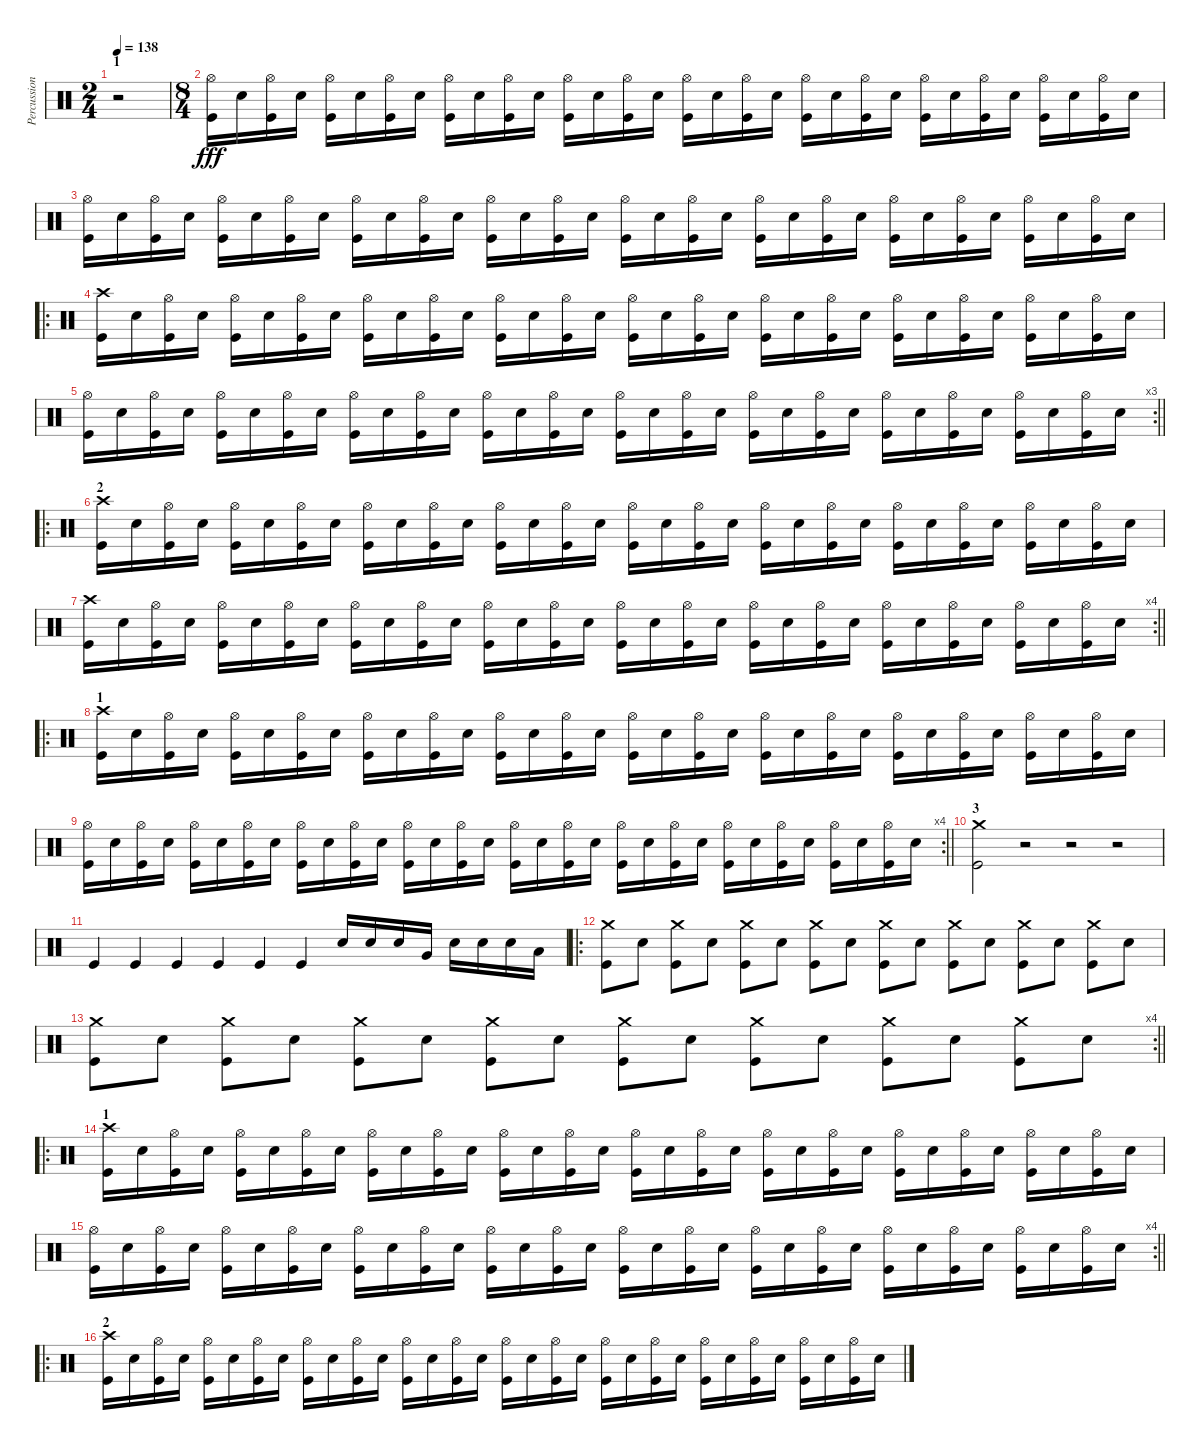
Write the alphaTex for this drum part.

\track ("Percussion" "Percussion") {instrument percussion}
\staff {score}
\articulation defaults
\ts (2 4)
\section ("" "1")
\tempo 138
\clef neutral
\ks c
r.2{dy fff} |
\ts (8 4)
("Hi-Hat (open)" "Kick (hit)").16 "Snare (hit) 2".16 ("Hi-Hat (open)" "Kick (hit)").16 "Snare (hit) 2".16 ("Hi-Hat (open)" "Kick (hit)").16 "Snare (hit) 2".16 ("Hi-Hat (open)" "Kick (hit)").16 "Snare (hit) 2".16 ("Hi-Hat (open)" "Kick (hit)").16 "Snare (hit) 2".16 ("Hi-Hat (open)" "Kick (hit)").16 "Snare (hit) 2".16 ("Hi-Hat (open)" "Kick (hit)").16 "Snare (hit) 2".16 ("Hi-Hat (open)" "Kick (hit)").16 "Snare (hit) 2".16 ("Hi-Hat (open)" "Kick (hit)").16 "Snare (hit) 2".16 ("Hi-Hat (open)" "Kick (hit)").16 "Snare (hit) 2".16 ("Hi-Hat (open)" "Kick (hit)").16 "Snare (hit) 2".16 ("Hi-Hat (open)" "Kick (hit)").16 "Snare (hit) 2".16 ("Hi-Hat (open)" "Kick (hit)").16 "Snare (hit) 2".16 ("Hi-Hat (open)" "Kick (hit)").16 "Snare (hit) 2".16 ("Hi-Hat (open)" "Kick (hit)").16 "Snare (hit) 2".16 ("Hi-Hat (open)" "Kick (hit)").16 "Snare (hit) 2".16 |
("Hi-Hat (open)" "Kick (hit)").16 "Snare (hit) 2".16 ("Hi-Hat (open)" "Kick (hit)").16 "Snare (hit) 2".16 ("Hi-Hat (open)" "Kick (hit)").16 "Snare (hit) 2".16 ("Hi-Hat (open)" "Kick (hit)").16 "Snare (hit) 2".16 ("Hi-Hat (open)" "Kick (hit)").16 "Snare (hit) 2".16 ("Hi-Hat (open)" "Kick (hit)").16 "Snare (hit) 2".16 ("Hi-Hat (open)" "Kick (hit)").16 "Snare (hit) 2".16 ("Hi-Hat (open)" "Kick (hit)").16 "Snare (hit) 2".16 ("Hi-Hat (open)" "Kick (hit)").16 "Snare (hit) 2".16 ("Hi-Hat (open)" "Kick (hit)").16 "Snare (hit) 2".16 ("Hi-Hat (open)" "Kick (hit)").16 "Snare (hit) 2".16 ("Hi-Hat (open)" "Kick (hit)").16 "Snare (hit) 2".16 ("Hi-Hat (open)" "Kick (hit)").16 "Snare (hit) 2".16 ("Hi-Hat (open)" "Kick (hit)").16 "Snare (hit) 2".16 ("Hi-Hat (open)" "Kick (hit)").16 "Snare (hit) 2".16 ("Hi-Hat (open)" "Kick (hit)").16 "Snare (hit) 2".16 |
\ro
("Crash high (hit)" "Kick (hit)").16 "Snare (hit) 2".16 ("Hi-Hat (open)" "Kick (hit)").16 "Snare (hit) 2".16 ("Hi-Hat (open)" "Kick (hit)").16 "Snare (hit) 2".16 ("Hi-Hat (open)" "Kick (hit)").16 "Snare (hit) 2".16 ("Hi-Hat (open)" "Kick (hit)").16 "Snare (hit) 2".16 ("Hi-Hat (open)" "Kick (hit)").16 "Snare (hit) 2".16 ("Hi-Hat (open)" "Kick (hit)").16 "Snare (hit) 2".16 ("Hi-Hat (open)" "Kick (hit)").16 "Snare (hit) 2".16 ("Hi-Hat (open)" "Kick (hit)").16 "Snare (hit) 2".16 ("Hi-Hat (open)" "Kick (hit)").16 "Snare (hit) 2".16 ("Hi-Hat (open)" "Kick (hit)").16 "Snare (hit) 2".16 ("Hi-Hat (open)" "Kick (hit)").16 "Snare (hit) 2".16 ("Hi-Hat (open)" "Kick (hit)").16 "Snare (hit) 2".16 ("Hi-Hat (open)" "Kick (hit)").16 "Snare (hit) 2".16 ("Hi-Hat (open)" "Kick (hit)").16 "Snare (hit) 2".16 ("Hi-Hat (open)" "Kick (hit)").16 "Snare (hit) 2".16 |
\rc 3
\barLineRight lightlight
("Hi-Hat (open)" "Kick (hit)").16 "Snare (hit) 2".16 ("Hi-Hat (open)" "Kick (hit)").16 "Snare (hit) 2".16 ("Hi-Hat (open)" "Kick (hit)").16 "Snare (hit) 2".16 ("Hi-Hat (open)" "Kick (hit)").16 "Snare (hit) 2".16 ("Hi-Hat (open)" "Kick (hit)").16 "Snare (hit) 2".16 ("Hi-Hat (open)" "Kick (hit)").16 "Snare (hit) 2".16 ("Hi-Hat (open)" "Kick (hit)").16 "Snare (hit) 2".16 ("Hi-Hat (open)" "Kick (hit)").16 "Snare (hit) 2".16 ("Hi-Hat (open)" "Kick (hit)").16 "Snare (hit) 2".16 ("Hi-Hat (open)" "Kick (hit)").16 "Snare (hit) 2".16 ("Hi-Hat (open)" "Kick (hit)").16 "Snare (hit) 2".16 ("Hi-Hat (open)" "Kick (hit)").16 "Snare (hit) 2".16 ("Hi-Hat (open)" "Kick (hit)").16 "Snare (hit) 2".16 ("Hi-Hat (open)" "Kick (hit)").16 "Snare (hit) 2".16 ("Hi-Hat (open)" "Kick (hit)").16 "Snare (hit) 2".16 ("Hi-Hat (open)" "Kick (hit)").16 "Snare (hit) 2".16 |
\ro
\section ("" "2")
("Crash high (hit)" "Kick (hit)").16 "Snare (hit) 2".16 ("Hi-Hat (open)" "Kick (hit)").16 "Snare (hit) 2".16 ("Hi-Hat (open)" "Kick (hit)").16 "Snare (hit) 2".16 ("Hi-Hat (open)" "Kick (hit)").16 "Snare (hit) 2".16 ("Hi-Hat (open)" "Kick (hit)").16 "Snare (hit) 2".16 ("Hi-Hat (open)" "Kick (hit)").16 "Snare (hit) 2".16 ("Hi-Hat (open)" "Kick (hit)").16 "Snare (hit) 2".16 ("Hi-Hat (open)" "Kick (hit)").16 "Snare (hit) 2".16 ("Hi-Hat (open)" "Kick (hit)").16 "Snare (hit) 2".16 ("Hi-Hat (open)" "Kick (hit)").16 "Snare (hit) 2".16 ("Hi-Hat (open)" "Kick (hit)").16 "Snare (hit) 2".16 ("Hi-Hat (open)" "Kick (hit)").16 "Snare (hit) 2".16 ("Hi-Hat (open)" "Kick (hit)").16 "Snare (hit) 2".16 ("Hi-Hat (open)" "Kick (hit)").16 "Snare (hit) 2".16 ("Hi-Hat (open)" "Kick (hit)").16 "Snare (hit) 2".16 ("Hi-Hat (open)" "Kick (hit)").16 "Snare (hit) 2".16 |
\rc 4
\barLineRight lightlight
("Crash high (hit)" "Kick (hit)").16 "Snare (hit) 2".16 ("Hi-Hat (open)" "Kick (hit)").16 "Snare (hit) 2".16 ("Hi-Hat (open)" "Kick (hit)").16 "Snare (hit) 2".16 ("Hi-Hat (open)" "Kick (hit)").16 "Snare (hit) 2".16 ("Hi-Hat (open)" "Kick (hit)").16 "Snare (hit) 2".16 ("Hi-Hat (open)" "Kick (hit)").16 "Snare (hit) 2".16 ("Hi-Hat (open)" "Kick (hit)").16 "Snare (hit) 2".16 ("Hi-Hat (open)" "Kick (hit)").16 "Snare (hit) 2".16 ("Hi-Hat (open)" "Kick (hit)").16 "Snare (hit) 2".16 ("Hi-Hat (open)" "Kick (hit)").16 "Snare (hit) 2".16 ("Hi-Hat (open)" "Kick (hit)").16 "Snare (hit) 2".16 ("Hi-Hat (open)" "Kick (hit)").16 "Snare (hit) 2".16 ("Hi-Hat (open)" "Kick (hit)").16 "Snare (hit) 2".16 ("Hi-Hat (open)" "Kick (hit)").16 "Snare (hit) 2".16 ("Hi-Hat (open)" "Kick (hit)").16 "Snare (hit) 2".16 ("Hi-Hat (open)" "Kick (hit)").16 "Snare (hit) 2".16 |
\ro
\section ("" "1")
("Crash high (hit)" "Kick (hit)").16 "Snare (hit) 2".16 ("Hi-Hat (open)" "Kick (hit)").16 "Snare (hit) 2".16 ("Hi-Hat (open)" "Kick (hit)").16 "Snare (hit) 2".16 ("Hi-Hat (open)" "Kick (hit)").16 "Snare (hit) 2".16 ("Hi-Hat (open)" "Kick (hit)").16 "Snare (hit) 2".16 ("Hi-Hat (open)" "Kick (hit)").16 "Snare (hit) 2".16 ("Hi-Hat (open)" "Kick (hit)").16 "Snare (hit) 2".16 ("Hi-Hat (open)" "Kick (hit)").16 "Snare (hit) 2".16 ("Hi-Hat (open)" "Kick (hit)").16 "Snare (hit) 2".16 ("Hi-Hat (open)" "Kick (hit)").16 "Snare (hit) 2".16 ("Hi-Hat (open)" "Kick (hit)").16 "Snare (hit) 2".16 ("Hi-Hat (open)" "Kick (hit)").16 "Snare (hit) 2".16 ("Hi-Hat (open)" "Kick (hit)").16 "Snare (hit) 2".16 ("Hi-Hat (open)" "Kick (hit)").16 "Snare (hit) 2".16 ("Hi-Hat (open)" "Kick (hit)").16 "Snare (hit) 2".16 ("Hi-Hat (open)" "Kick (hit)").16 "Snare (hit) 2".16 |
\rc 4
\barLineRight lightlight
("Hi-Hat (open)" "Kick (hit)").16 "Snare (hit) 2".16 ("Hi-Hat (open)" "Kick (hit)").16 "Snare (hit) 2".16 ("Hi-Hat (open)" "Kick (hit)").16 "Snare (hit) 2".16 ("Hi-Hat (open)" "Kick (hit)").16 "Snare (hit) 2".16 ("Hi-Hat (open)" "Kick (hit)").16 "Snare (hit) 2".16 ("Hi-Hat (open)" "Kick (hit)").16 "Snare (hit) 2".16 ("Hi-Hat (open)" "Kick (hit)").16 "Snare (hit) 2".16 ("Hi-Hat (open)" "Kick (hit)").16 "Snare (hit) 2".16 ("Hi-Hat (open)" "Kick (hit)").16 "Snare (hit) 2".16 ("Hi-Hat (open)" "Kick (hit)").16 "Snare (hit) 2".16 ("Hi-Hat (open)" "Kick (hit)").16 "Snare (hit) 2".16 ("Hi-Hat (open)" "Kick (hit)").16 "Snare (hit) 2".16 ("Hi-Hat (open)" "Kick (hit)").16 "Snare (hit) 2".16 ("Hi-Hat (open)" "Kick (hit)").16 "Snare (hit) 2".16 ("Hi-Hat (open)" "Kick (hit)").16 "Snare (hit) 2".16 ("Hi-Hat (open)" "Kick (hit)").16 "Snare (hit) 2".16 |
\section ("" "3")
("Crash medium (hit)" "Kick (hit)").2 r.2 r.2 r.2 |
"Kick (hit)".4 "Kick (hit)".4 "Kick (hit)".4 "Kick (hit)".4 "Kick (hit)".4 "Kick (hit)".4 "Snare (hit) 2".16 "Snare (hit) 2".16 "Snare (hit) 2".16 "Very Low Tom (hit)".16 "Snare (hit) 2".16 "Snare (hit) 2".16 "Snare (hit) 2".16 "Low Floor Tom (hit)".16 |
\ro
("Crash medium (hit)" "Kick (hit)").8 "Snare (hit) 2".8 ("Crash medium (hit)" "Kick (hit)").8 "Snare (hit) 2".8 ("Crash medium (hit)" "Kick (hit)").8 "Snare (hit) 2".8 ("Crash medium (hit)" "Kick (hit)").8 "Snare (hit) 2".8 ("Crash medium (hit)" "Kick (hit)").8 "Snare (hit) 2".8 ("Crash medium (hit)" "Kick (hit)").8 "Snare (hit) 2".8 ("Crash medium (hit)" "Kick (hit)").8 "Snare (hit) 2".8 ("Crash medium (hit)" "Kick (hit)").8 "Snare (hit) 2".8 |
\rc 4
\barLineRight lightlight
("Crash medium (hit)" "Kick (hit)").8 "Snare (hit) 2".8 ("Crash medium (hit)" "Kick (hit)").8 "Snare (hit) 2".8 ("Crash medium (hit)" "Kick (hit)").8 "Snare (hit) 2".8 ("Crash medium (hit)" "Kick (hit)").8 "Snare (hit) 2".8 ("Crash medium (hit)" "Kick (hit)").8 "Snare (hit) 2".8 ("Crash medium (hit)" "Kick (hit)").8 "Snare (hit) 2".8 ("Crash medium (hit)" "Kick (hit)").8 "Snare (hit) 2".8 ("Crash medium (hit)" "Kick (hit)").8 "Snare (hit) 2".8 |
\ro
\section ("" "1")
("Crash high (hit)" "Kick (hit)").16 "Snare (hit) 2".16 ("Hi-Hat (open)" "Kick (hit)").16 "Snare (hit) 2".16 ("Hi-Hat (open)" "Kick (hit)").16 "Snare (hit) 2".16 ("Hi-Hat (open)" "Kick (hit)").16 "Snare (hit) 2".16 ("Hi-Hat (open)" "Kick (hit)").16 "Snare (hit) 2".16 ("Hi-Hat (open)" "Kick (hit)").16 "Snare (hit) 2".16 ("Hi-Hat (open)" "Kick (hit)").16 "Snare (hit) 2".16 ("Hi-Hat (open)" "Kick (hit)").16 "Snare (hit) 2".16 ("Hi-Hat (open)" "Kick (hit)").16 "Snare (hit) 2".16 ("Hi-Hat (open)" "Kick (hit)").16 "Snare (hit) 2".16 ("Hi-Hat (open)" "Kick (hit)").16 "Snare (hit) 2".16 ("Hi-Hat (open)" "Kick (hit)").16 "Snare (hit) 2".16 ("Hi-Hat (open)" "Kick (hit)").16 "Snare (hit) 2".16 ("Hi-Hat (open)" "Kick (hit)").16 "Snare (hit) 2".16 ("Hi-Hat (open)" "Kick (hit)").16 "Snare (hit) 2".16 ("Hi-Hat (open)" "Kick (hit)").16 "Snare (hit) 2".16 |
\rc 4
\barLineRight lightlight
("Hi-Hat (open)" "Kick (hit)").16 "Snare (hit) 2".16 ("Hi-Hat (open)" "Kick (hit)").16 "Snare (hit) 2".16 ("Hi-Hat (open)" "Kick (hit)").16 "Snare (hit) 2".16 ("Hi-Hat (open)" "Kick (hit)").16 "Snare (hit) 2".16 ("Hi-Hat (open)" "Kick (hit)").16 "Snare (hit) 2".16 ("Hi-Hat (open)" "Kick (hit)").16 "Snare (hit) 2".16 ("Hi-Hat (open)" "Kick (hit)").16 "Snare (hit) 2".16 ("Hi-Hat (open)" "Kick (hit)").16 "Snare (hit) 2".16 ("Hi-Hat (open)" "Kick (hit)").16 "Snare (hit) 2".16 ("Hi-Hat (open)" "Kick (hit)").16 "Snare (hit) 2".16 ("Hi-Hat (open)" "Kick (hit)").16 "Snare (hit) 2".16 ("Hi-Hat (open)" "Kick (hit)").16 "Snare (hit) 2".16 ("Hi-Hat (open)" "Kick (hit)").16 "Snare (hit) 2".16 ("Hi-Hat (open)" "Kick (hit)").16 "Snare (hit) 2".16 ("Hi-Hat (open)" "Kick (hit)").16 "Snare (hit) 2".16 ("Hi-Hat (open)" "Kick (hit)").16 "Snare (hit) 2".16 |
\ro
\section ("" "2")
("Crash high (hit)" "Kick (hit)").16 "Snare (hit) 2".16 ("Hi-Hat (open)" "Kick (hit)").16 "Snare (hit) 2".16 ("Hi-Hat (open)" "Kick (hit)").16 "Snare (hit) 2".16 ("Hi-Hat (open)" "Kick (hit)").16 "Snare (hit) 2".16 ("Hi-Hat (open)" "Kick (hit)").16 "Snare (hit) 2".16 ("Hi-Hat (open)" "Kick (hit)").16 "Snare (hit) 2".16 ("Hi-Hat (open)" "Kick (hit)").16 "Snare (hit) 2".16 ("Hi-Hat (open)" "Kick (hit)").16 "Snare (hit) 2".16 ("Hi-Hat (open)" "Kick (hit)").16 "Snare (hit) 2".16 ("Hi-Hat (open)" "Kick (hit)").16 "Snare (hit) 2".16 ("Hi-Hat (open)" "Kick (hit)").16 "Snare (hit) 2".16 ("Hi-Hat (open)" "Kick (hit)").16 "Snare (hit) 2".16 ("Hi-Hat (open)" "Kick (hit)").16 "Snare (hit) 2".16 ("Hi-Hat (open)" "Kick (hit)").16 "Snare (hit) 2".16 ("Hi-Hat (open)" "Kick (hit)").16 "Snare (hit) 2".16 ("Hi-Hat (open)" "Kick (hit)").16 "Snare (hit) 2".16
